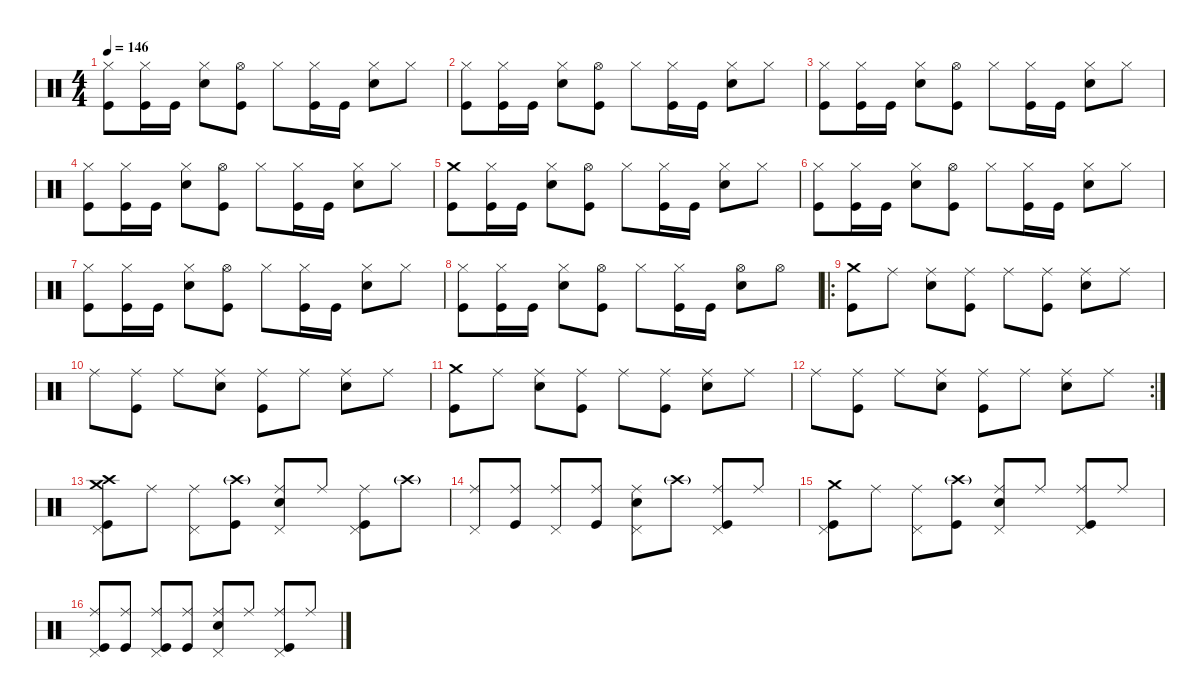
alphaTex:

\defaultSystemsLayout 4
\hideDynamics
\bracketExtendMode nobrackets
\singleTrackTrackNamePolicy hidden
\multiTrackTrackNamePolicy hidden
\firstSystemTrackNameMode fullname
\firstSystemTrackNameOrientation horizontal
\otherSystemsTrackNameOrientation horizontal
\track ("Drums" "drm.") {instrument percussion}
\staff {score}
\articulation defaults
\ts (4 4)
\tempo 146
\clef neutral
\ks c
("Hi-Hat (closed)" "Kick (hit)").8{dy f beam Down} ("Hi-Hat (closed)" "Kick (hit)").16{beam Down} "Kick (hit)".16{beam Down} ("Hi-Hat (closed)" "Snare (hit) 2").8{beam Down} ("Hi-Hat (open)" "Kick (hit)").8{beam Down} "Hi-Hat (closed)".8{beam Down} ("Hi-Hat (closed)" "Kick (hit)").16{beam Down} "Kick (hit)".16{beam Down} ("Hi-Hat (closed)" "Snare (hit) 2").8{beam Down} "Hi-Hat (closed)".8{beam Down} |
("Hi-Hat (closed)" "Kick (hit)").8{beam Down} ("Hi-Hat (closed)" "Kick (hit)").16{beam Down} "Kick (hit)".16{beam Down} ("Hi-Hat (closed)" "Snare (hit) 2").8{beam Down} ("Hi-Hat (open)" "Kick (hit)").8{beam Down} "Hi-Hat (closed)".8{beam Down} ("Hi-Hat (closed)" "Kick (hit)").16{beam Down} "Kick (hit)".16{beam Down} ("Hi-Hat (closed)" "Snare (hit) 2").8{beam Down} "Hi-Hat (closed)".8{beam Down} |
("Hi-Hat (closed)" "Kick (hit)").8{beam Down} ("Hi-Hat (closed)" "Kick (hit)").16{beam Down} "Kick (hit)".16{beam Down} ("Hi-Hat (closed)" "Snare (hit) 2").8{beam Down} ("Hi-Hat (open)" "Kick (hit)").8{beam Down} "Hi-Hat (closed)".8{beam Down} ("Hi-Hat (closed)" "Kick (hit)").16{beam Down} "Kick (hit)".16{beam Down} ("Hi-Hat (closed)" "Snare (hit) 2").8{beam Down} "Hi-Hat (closed)".8{beam Down} |
("Hi-Hat (closed)" "Kick (hit)").8{beam Down} ("Hi-Hat (closed)" "Kick (hit)").16{beam Down} "Kick (hit)".16{beam Down} ("Hi-Hat (closed)" "Snare (hit) 2").8{beam Down} ("Hi-Hat (open)" "Kick (hit)").8{beam Down} "Hi-Hat (closed)".8{beam Down} ("Hi-Hat (closed)" "Kick (hit)").16{beam Down} "Kick (hit)".16{beam Down} ("Hi-Hat (closed)" "Snare (hit) 2").8{beam Down} "Hi-Hat (closed)".8{beam Down} |
("Crash medium (hit)" "Kick (hit)").8{beam Down} ("Hi-Hat (closed)" "Kick (hit)").16{beam Down} "Kick (hit)".16{beam Down} ("Hi-Hat (closed)" "Snare (hit) 2").8{beam Down} ("Hi-Hat (open)" "Kick (hit)").8{beam Down} "Hi-Hat (closed)".8{beam Down} ("Hi-Hat (closed)" "Kick (hit)").16{beam Down} "Kick (hit)".16{beam Down} ("Hi-Hat (closed)" "Snare (hit) 2").8{beam Down} "Hi-Hat (closed)".8{beam Down} |
("Hi-Hat (closed)" "Kick (hit)").8{beam Down} ("Hi-Hat (closed)" "Kick (hit)").16{beam Down} "Kick (hit)".16{beam Down} ("Hi-Hat (closed)" "Snare (hit) 2").8{beam Down} ("Hi-Hat (open)" "Kick (hit)").8{beam Down} "Hi-Hat (closed)".8{beam Down} ("Hi-Hat (closed)" "Kick (hit)").16{beam Down} "Kick (hit)".16{beam Down} ("Hi-Hat (closed)" "Snare (hit) 2").8{beam Down} "Hi-Hat (closed)".8{beam Down} |
("Hi-Hat (closed)" "Kick (hit)").8{beam Down} ("Hi-Hat (closed)" "Kick (hit)").16{beam Down} "Kick (hit)".16{beam Down} ("Hi-Hat (closed)" "Snare (hit) 2").8{beam Down} ("Hi-Hat (open)" "Kick (hit)").8{beam Down} "Hi-Hat (closed)".8{beam Down} ("Hi-Hat (closed)" "Kick (hit)").16{beam Down} "Kick (hit)".16{beam Down} ("Hi-Hat (closed)" "Snare (hit) 2").8{beam Down} "Hi-Hat (closed)".8{beam Down} |
("Hi-Hat (closed)" "Kick (hit)").8{beam Down} ("Hi-Hat (closed)" "Kick (hit)").16{beam Down} "Kick (hit)".16{beam Down} ("Hi-Hat (closed)" "Snare (hit) 2").8{beam Down} ("Hi-Hat (open)" "Kick (hit)").8{beam Down} "Hi-Hat (closed)".8{beam Down} ("Hi-Hat (closed)" "Kick (hit)").16{beam Down} "Kick (hit)".16{beam Down} ("Hi-Hat (open)" "Snare (hit) 2").8{beam Down} "Hi-Hat (open)".8{beam Down} |
\ro
("Crash medium (hit)" "Kick (hit)").8{beam Down} "Ride (middle)".8{beam Down} ("Ride (middle)" "Snare (hit) 2").8{beam Down} ("Ride (middle)" "Kick (hit)").8{beam Down} "Ride (middle)".8{beam Down} ("Ride (middle)" "Kick (hit)").8{beam Down} ("Ride (middle)" "Snare (hit) 2").8{beam Down} "Ride (middle)".8{beam Down} |
"Ride (middle)".8{beam Down} ("Ride (middle)" "Kick (hit)").8{beam Down} "Ride (middle)".8{beam Down} ("Ride (middle)" "Snare (hit) 2").8{beam Down} ("Ride (middle)" "Kick (hit)").8{beam Down} "Ride (middle)".8{beam Down} ("Ride (middle)" "Snare (hit) 2").8{beam Down} "Ride (middle)".8{beam Down} |
("Crash medium (hit)" "Kick (hit)").8{beam Down} "Ride (middle)".8{beam Down} ("Ride (middle)" "Snare (hit) 2").8{beam Down} ("Ride (middle)" "Kick (hit)").8{beam Down} "Ride (middle)".8{beam Down} ("Ride (middle)" "Kick (hit)").8{beam Down} ("Ride (middle)" "Snare (hit) 2").8{beam Down} "Ride (middle)".8{beam Down} |
\rc 2 "Ride (middle)".8{beam Down}
("Ride (middle)" "Kick (hit)").8{beam Down} "Ride (middle)".8{beam Down} ("Ride (middle)" "Snare (hit) 2").8{beam Down} ("Ride (middle)" "Kick (hit)").8{beam Down} "Ride (middle)".8{beam Down} ("Ride (middle)" "Snare (hit) 2").8{beam Down} "Ride (middle)".8{beam Down} |
("Crash medium (hit)" "Crash high (hit)" "Pedal Hi-Hat (hit)" "Kick (hit)").8{beam Down} "Ride (middle)".8{beam Down} ("Ride (middle)" "Pedal Hi-Hat (hit)").8{beam Down} ("Crash high (hit)"{g} "Kick (hit)").8{beam Down} ("Ride (middle)" "Pedal Hi-Hat (hit)" "Snare (hit) 2").8{beam Up} "Ride (middle)".8{beam Up} ("Ride (middle)" "Pedal Hi-Hat (hit)" "Kick (hit)").8{beam Down} "Crash high (hit)"{g}.8{dy mf beam Down} |
("Ride (middle)" "Pedal Hi-Hat (hit)").8{dy f beam Up} ("Ride (middle)" "Kick (hit)").8{beam Up} ("Ride (middle)" "Pedal Hi-Hat (hit)").8{beam Up} ("Ride (middle)" "Kick (hit)").8{beam Up} ("Ride (middle)" "Pedal Hi-Hat (hit)" "Snare (hit) 2").8{beam Down} "Crash high (hit)"{g}.8{dy mf beam Down} ("Ride (middle)" "Pedal Hi-Hat (hit)" "Kick (hit)").8{dy f beam Up} "Ride (middle)".8{beam Up} |
("Crash medium (hit)" "Pedal Hi-Hat (hit)" "Kick (hit)").8{beam Down} "Ride (middle)".8{beam Down} ("Ride (middle)" "Pedal Hi-Hat (hit)").8{beam Down} ("Crash high (hit)"{g} "Kick (hit)").8{beam Down} ("Ride (middle)" "Pedal Hi-Hat (hit)" "Snare (hit) 2").8{beam Up} "Ride (middle)".8{beam Up} ("Ride (middle)" "Pedal Hi-Hat (hit)" "Kick (hit)").8{beam Up} "Ride (middle)".8{beam Up} |
("Ride (middle)" "Pedal Hi-Hat (hit)" "Kick (hit)").8{beam Up} ("Ride (middle)" "Kick (hit)").8{beam Up} ("Ride (middle)" "Pedal Hi-Hat (hit)" "Kick (hit)").8{beam Up} ("Ride (middle)" "Kick (hit)").8{beam Up} ("Ride (middle)" "Pedal Hi-Hat (hit)" "Snare (hit) 2").8{beam Up} "Ride (middle)".8{beam Up} ("Ride (middle)" "Pedal Hi-Hat (hit)" "Kick (hit)").8{beam Up} "Ride (middle)".8{beam Up}
